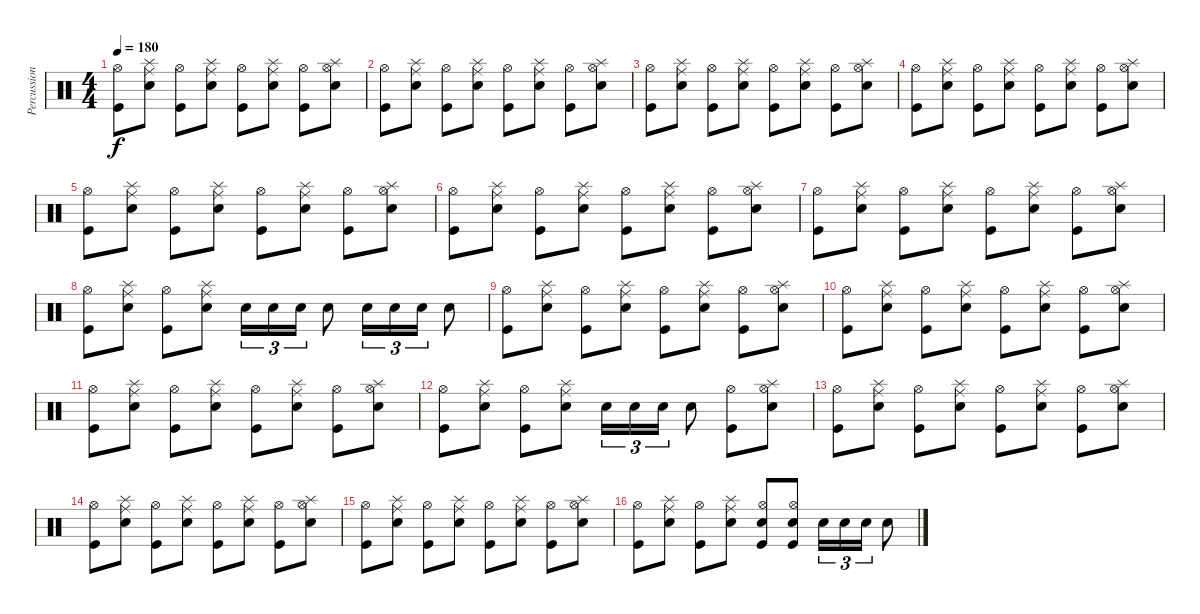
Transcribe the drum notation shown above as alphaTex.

\track ("Percussions" "Percussion") {instrument percussion}
\staff {score}
\articulation defaults
\ts (4 4)
\tempo 180
\clef neutral
\ks c
("Kick (hit)" "Hi-Hat (open)").8{dy f} ("Snare (hit) 2" "Ride (middle)" "Splash (hit)").8 ("Kick (hit)" "Hi-Hat (open)").8 ("Snare (hit) 2" "Ride (middle)" "Splash (hit)").8 ("Kick (hit)" "Hi-Hat (open)").8 ("Snare (hit) 2" "Ride (middle)" "Splash (hit)").8 ("Kick (hit)" "Hi-Hat (open)").8 ("Snare (hit) 2" "Hi-Hat (open)" "Splash (hit)").8 |
("Kick (hit)" "Hi-Hat (open)").8 ("Snare (hit) 2" "Ride (middle)" "Splash (hit)").8 ("Kick (hit)" "Hi-Hat (open)").8 ("Snare (hit) 2" "Ride (middle)" "Splash (hit)").8 ("Kick (hit)" "Hi-Hat (open)").8 ("Snare (hit) 2" "Ride (middle)" "Splash (hit)").8 ("Kick (hit)" "Hi-Hat (open)").8 ("Snare (hit) 2" "Hi-Hat (open)" "Splash (hit)").8 |
("Kick (hit)" "Hi-Hat (open)").8 ("Snare (hit) 2" "Ride (middle)" "Splash (hit)").8 ("Kick (hit)" "Hi-Hat (open)").8 ("Snare (hit) 2" "Ride (middle)" "Splash (hit)").8 ("Kick (hit)" "Hi-Hat (open)").8 ("Snare (hit) 2" "Ride (middle)" "Splash (hit)").8 ("Kick (hit)" "Hi-Hat (open)").8 ("Snare (hit) 2" "Hi-Hat (open)" "Splash (hit)").8 |
("Kick (hit)" "Hi-Hat (open)").8 ("Snare (hit) 2" "Ride (middle)" "Splash (hit)").8 ("Kick (hit)" "Hi-Hat (open)").8 ("Snare (hit) 2" "Ride (middle)" "Splash (hit)").8 ("Kick (hit)" "Hi-Hat (open)").8 ("Snare (hit) 2" "Ride (middle)" "Splash (hit)").8 ("Kick (hit)" "Hi-Hat (open)").8 ("Snare (hit) 2" "Hi-Hat (open)" "Splash (hit)").8 |
("Kick (hit)" "Hi-Hat (open)").8 ("Snare (hit) 2" "Ride (middle)" "Splash (hit)").8 ("Kick (hit)" "Hi-Hat (open)").8 ("Snare (hit) 2" "Ride (middle)" "Splash (hit)").8 ("Kick (hit)" "Hi-Hat (open)").8 ("Snare (hit) 2" "Ride (middle)" "Splash (hit)").8 ("Kick (hit)" "Hi-Hat (open)").8 ("Snare (hit) 2" "Hi-Hat (open)" "Splash (hit)").8 |
("Kick (hit)" "Hi-Hat (open)").8 ("Snare (hit) 2" "Ride (middle)" "Splash (hit)").8 ("Kick (hit)" "Hi-Hat (open)").8 ("Snare (hit) 2" "Ride (middle)" "Splash (hit)").8 ("Kick (hit)" "Hi-Hat (open)").8 ("Snare (hit) 2" "Ride (middle)" "Splash (hit)").8 ("Kick (hit)" "Hi-Hat (open)").8 ("Snare (hit) 2" "Hi-Hat (open)" "Splash (hit)").8 |
("Kick (hit)" "Hi-Hat (open)").8 ("Snare (hit) 2" "Ride (middle)" "Splash (hit)").8 ("Kick (hit)" "Hi-Hat (open)").8 ("Snare (hit) 2" "Ride (middle)" "Splash (hit)").8 ("Kick (hit)" "Hi-Hat (open)").8 ("Snare (hit) 2" "Ride (middle)" "Splash (hit)").8 ("Kick (hit)" "Hi-Hat (open)").8 ("Snare (hit) 2" "Hi-Hat (open)" "Splash (hit)").8 |
("Kick (hit)" "Hi-Hat (open)").8 ("Snare (hit) 2" "Ride (middle)" "Splash (hit)").8 ("Kick (hit)" "Hi-Hat (open)").8 ("Snare (hit) 2" "Ride (middle)" "Splash (hit)").8 "Electric Snare (hit)".16{tu (3 2)} "Electric Snare (hit)".16{tu (3 2)} "Electric Snare (hit)".16{tu (3 2)} "Electric Snare (hit)".8 "Electric Snare (hit)".16{tu (3 2)} "Electric Snare (hit)".16{tu (3 2)} "Electric Snare (hit)".16{tu (3 2)} "Electric Snare (hit)".8 |
("Kick (hit)" "Hi-Hat (open)").8 ("Snare (hit) 2" "Ride (middle)" "Splash (hit)").8 ("Kick (hit)" "Hi-Hat (open)").8 ("Snare (hit) 2" "Ride (middle)" "Splash (hit)").8 ("Kick (hit)" "Hi-Hat (open)").8 ("Snare (hit) 2" "Ride (middle)" "Splash (hit)").8 ("Kick (hit)" "Hi-Hat (open)").8 ("Snare (hit) 2" "Hi-Hat (open)" "Splash (hit)").8 |
("Kick (hit)" "Hi-Hat (open)").8 ("Snare (hit) 2" "Ride (middle)" "Splash (hit)").8 ("Kick (hit)" "Hi-Hat (open)").8 ("Snare (hit) 2" "Ride (middle)" "Splash (hit)").8 ("Kick (hit)" "Hi-Hat (open)").8 ("Snare (hit) 2" "Ride (middle)" "Splash (hit)").8 ("Kick (hit)" "Hi-Hat (open)").8 ("Snare (hit) 2" "Hi-Hat (open)" "Splash (hit)").8 |
("Kick (hit)" "Hi-Hat (open)").8 ("Snare (hit) 2" "Ride (middle)" "Splash (hit)").8 ("Kick (hit)" "Hi-Hat (open)").8 ("Snare (hit) 2" "Ride (middle)" "Splash (hit)").8 ("Kick (hit)" "Hi-Hat (open)").8 ("Snare (hit) 2" "Ride (middle)" "Splash (hit)").8 ("Kick (hit)" "Hi-Hat (open)").8 ("Snare (hit) 2" "Hi-Hat (open)" "Splash (hit)").8 |
("Kick (hit)" "Hi-Hat (open)").8 ("Snare (hit) 2" "Ride (middle)" "Splash (hit)").8 ("Kick (hit)" "Hi-Hat (open)").8 ("Snare (hit) 2" "Ride (middle)" "Splash (hit)").8 "Electric Snare (hit)".16{tu (3 2)} "Electric Snare (hit)".16{tu (3 2)} "Electric Snare (hit)".16{tu (3 2)} "Electric Snare (hit)".8 ("Kick (hit)" "Hi-Hat (open)").8 ("Snare (hit) 2" "Hi-Hat (open)" "Splash (hit)").8 |
("Kick (hit)" "Hi-Hat (open)").8 ("Snare (hit) 2" "Ride (middle)" "Splash (hit)").8 ("Kick (hit)" "Hi-Hat (open)").8 ("Snare (hit) 2" "Ride (middle)" "Splash (hit)").8 ("Kick (hit)" "Hi-Hat (open)").8 ("Snare (hit) 2" "Ride (middle)" "Splash (hit)").8 ("Kick (hit)" "Hi-Hat (open)").8 ("Snare (hit) 2" "Hi-Hat (open)" "Splash (hit)").8 |
("Kick (hit)" "Hi-Hat (open)").8 ("Snare (hit) 2" "Ride (middle)" "Splash (hit)").8 ("Kick (hit)" "Hi-Hat (open)").8 ("Snare (hit) 2" "Ride (middle)" "Splash (hit)").8 ("Kick (hit)" "Hi-Hat (open)").8 ("Snare (hit) 2" "Ride (middle)" "Splash (hit)").8 ("Kick (hit)" "Hi-Hat (open)").8 ("Snare (hit) 2" "Hi-Hat (open)" "Splash (hit)").8 |
("Kick (hit)" "Hi-Hat (open)").8 ("Snare (hit) 2" "Ride (middle)" "Splash (hit)").8 ("Kick (hit)" "Hi-Hat (open)").8 ("Snare (hit) 2" "Ride (middle)" "Splash (hit)").8 ("Kick (hit)" "Hi-Hat (open)").8 ("Snare (hit) 2" "Ride (middle)" "Splash (hit)").8 ("Kick (hit)" "Hi-Hat (open)").8 ("Snare (hit) 2" "Hi-Hat (open)" "Splash (hit)").8 |
("Kick (hit)" "Hi-Hat (open)").8 ("Snare (hit) 2" "Ride (middle)" "Splash (hit)").8 ("Kick (hit)" "Hi-Hat (open)").8 ("Snare (hit) 2" "Ride (middle)" "Splash (hit)").8 ("Electric Snare (hit)" "Hi-Hat (open)" "Kick (hit)").8 ("Electric Snare (hit)" "Hi-Hat (open)" "Kick (hit)").8 "Electric Snare (hit)".16{tu (3 2)} "Electric Snare (hit)".16{tu (3 2)} "Electric Snare (hit)".16{tu (3 2)} "Electric Snare (hit)".8
